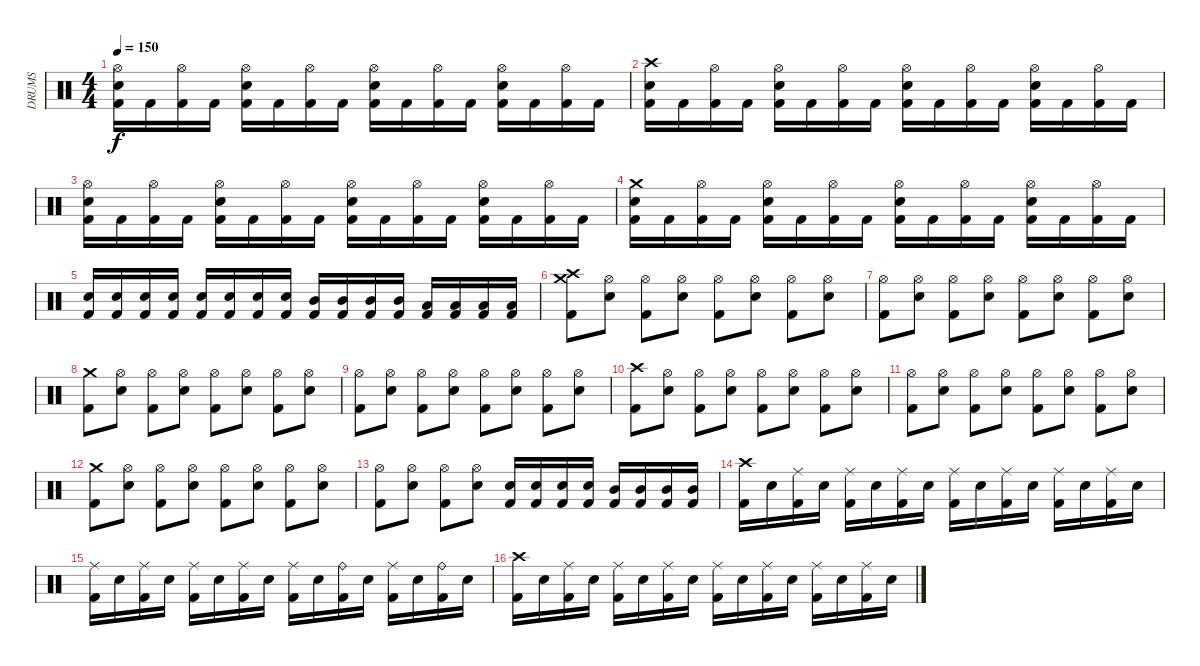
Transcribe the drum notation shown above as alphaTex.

\track ("DRUMS" "DRUMS") {instrument percussion}
\staff {score}
\articulation defaults
\ts (4 4)
\tempo 150
\clef neutral
\ks c
("Kick (hit) 2" "Snare (hit) 2" "Hi-Hat (open)").16{dy f} "Kick (hit) 2".16 ("Kick (hit) 2" "Hi-Hat (open)").16 "Kick (hit) 2".16 ("Kick (hit) 2" "Snare (hit) 2" "Hi-Hat (open)").16 "Kick (hit) 2".16 ("Kick (hit) 2" "Hi-Hat (open)").16 "Kick (hit) 2".16 ("Kick (hit) 2" "Snare (hit) 2" "Hi-Hat (open)").16 "Kick (hit) 2".16 ("Kick (hit) 2" "Hi-Hat (open)").16 "Kick (hit) 2".16 ("Kick (hit) 2" "Snare (hit) 2" "Hi-Hat (open)").16 "Kick (hit) 2".16 ("Kick (hit) 2" "Hi-Hat (open)").16 "Kick (hit) 2".16 |
("Kick (hit) 2" "Snare (hit) 2" "Crash high (hit)").16 "Kick (hit) 2".16 ("Kick (hit) 2" "Hi-Hat (open)").16 "Kick (hit) 2".16 ("Kick (hit) 2" "Snare (hit) 2" "Hi-Hat (open)").16 "Kick (hit) 2".16 ("Kick (hit) 2" "Hi-Hat (open)").16 "Kick (hit) 2".16 ("Kick (hit) 2" "Snare (hit) 2" "Hi-Hat (open)").16 "Kick (hit) 2".16 ("Kick (hit) 2" "Hi-Hat (open)").16 "Kick (hit) 2".16 ("Kick (hit) 2" "Snare (hit) 2" "Hi-Hat (open)").16 "Kick (hit) 2".16 ("Kick (hit) 2" "Hi-Hat (open)").16 "Kick (hit) 2".16 |
("Kick (hit) 2" "Snare (hit) 2" "Hi-Hat (open)").16 "Kick (hit) 2".16 ("Kick (hit) 2" "Hi-Hat (open)").16 "Kick (hit) 2".16 ("Kick (hit) 2" "Snare (hit) 2" "Hi-Hat (open)").16 "Kick (hit) 2".16 ("Kick (hit) 2" "Hi-Hat (open)").16 "Kick (hit) 2".16 ("Kick (hit) 2" "Snare (hit) 2" "Hi-Hat (open)").16 "Kick (hit) 2".16 ("Kick (hit) 2" "Hi-Hat (open)").16 "Kick (hit) 2".16 ("Kick (hit) 2" "Snare (hit) 2" "Hi-Hat (open)").16 "Kick (hit) 2".16 ("Kick (hit) 2" "Hi-Hat (open)").16 "Kick (hit) 2".16 |
("Kick (hit) 2" "Snare (hit) 2" "Crash medium (hit)").16 "Kick (hit) 2".16 ("Kick (hit) 2" "Hi-Hat (open)").16 "Kick (hit) 2".16 ("Kick (hit) 2" "Snare (hit) 2" "Hi-Hat (open)").16 "Kick (hit) 2".16 ("Kick (hit) 2" "Hi-Hat (open)").16 "Kick (hit) 2".16 ("Kick (hit) 2" "Snare (hit) 2" "Hi-Hat (open)").16 "Kick (hit) 2".16 ("Kick (hit) 2" "Hi-Hat (open)").16 "Kick (hit) 2".16 ("Kick (hit) 2" "Snare (hit) 2" "Hi-Hat (open)").16 "Kick (hit) 2".16 ("Kick (hit) 2" "Hi-Hat (open)").16 "Kick (hit) 2".16 |
("Kick (hit) 2" "Snare (hit) 2").16 ("Kick (hit) 2" "Snare (hit) 2").16 ("Kick (hit) 2" "Snare (hit) 2").16 ("Kick (hit) 2" "Snare (hit) 2").16 ("Kick (hit) 2" "Snare (hit) 2").16 ("Kick (hit) 2" "Snare (hit) 2").16 ("Kick (hit) 2" "Snare (hit) 2").16 ("Kick (hit) 2" "Snare (hit) 2").16 ("Kick (hit) 2" "Mid Tom (hit)").16 ("Kick (hit) 2" "Mid Tom (hit)").16 ("Kick (hit) 2" "Mid Tom (hit)").16 ("Kick (hit) 2" "Mid Tom (hit)").16 ("Kick (hit) 2" "Low Tom (hit)").16 ("Kick (hit) 2" "Low Tom (hit)").16 ("Kick (hit) 2" "Low Tom (hit)").16 ("Kick (hit) 2" "Low Tom (hit)").16 |
("Kick (hit) 2" "Crash high (hit)" "Crash medium (hit)").8 ("Snare (hit) 2" "Hi-Hat (open)").8 ("Kick (hit) 2" "Hi-Hat (open)").8 ("Snare (hit) 2" "Hi-Hat (open)").8 ("Kick (hit) 2" "Hi-Hat (open)").8 ("Snare (hit) 2" "Hi-Hat (open)").8 ("Kick (hit) 2" "Hi-Hat (open)").8 ("Snare (hit) 2" "Hi-Hat (open)").8 |
("Kick (hit) 2" "Hi-Hat (open)").8 ("Snare (hit) 2" "Hi-Hat (open)").8 ("Kick (hit) 2" "Hi-Hat (open)").8 ("Snare (hit) 2" "Hi-Hat (open)").8 ("Kick (hit) 2" "Hi-Hat (open)").8 ("Snare (hit) 2" "Hi-Hat (open)").8 ("Kick (hit) 2" "Hi-Hat (open)").8 ("Snare (hit) 2" "Hi-Hat (open)").8 |
("Kick (hit) 2" "Crash medium (hit)").8 ("Snare (hit) 2" "Hi-Hat (open)").8 ("Kick (hit) 2" "Hi-Hat (open)").8 ("Snare (hit) 2" "Hi-Hat (open)").8 ("Kick (hit) 2" "Hi-Hat (open)").8 ("Snare (hit) 2" "Hi-Hat (open)").8 ("Kick (hit) 2" "Hi-Hat (open)").8 ("Snare (hit) 2" "Hi-Hat (open)").8 |
("Kick (hit) 2" "Hi-Hat (open)").8 ("Snare (hit) 2" "Hi-Hat (open)").8 ("Kick (hit) 2" "Hi-Hat (open)").8 ("Snare (hit) 2" "Hi-Hat (open)").8 ("Kick (hit) 2" "Hi-Hat (open)").8 ("Snare (hit) 2" "Hi-Hat (open)").8 ("Kick (hit) 2" "Hi-Hat (open)").8 ("Snare (hit) 2" "Hi-Hat (open)").8 |
("Kick (hit) 2" "Crash high (hit)").8 ("Snare (hit) 2" "Hi-Hat (open)").8 ("Kick (hit) 2" "Hi-Hat (open)").8 ("Snare (hit) 2" "Hi-Hat (open)").8 ("Kick (hit) 2" "Hi-Hat (open)").8 ("Snare (hit) 2" "Hi-Hat (open)").8 ("Kick (hit) 2" "Hi-Hat (open)").8 ("Snare (hit) 2" "Hi-Hat (open)").8 |
("Kick (hit) 2" "Hi-Hat (open)").8 ("Snare (hit) 2" "Hi-Hat (open)").8 ("Kick (hit) 2" "Hi-Hat (open)").8 ("Snare (hit) 2" "Hi-Hat (open)").8 ("Kick (hit) 2" "Hi-Hat (open)").8 ("Snare (hit) 2" "Hi-Hat (open)").8 ("Kick (hit) 2" "Hi-Hat (open)").8 ("Snare (hit) 2" "Hi-Hat (open)").8 |
("Kick (hit) 2" "Crash medium (hit)").8 ("Snare (hit) 2" "Hi-Hat (open)").8 ("Kick (hit) 2" "Hi-Hat (open)").8 ("Snare (hit) 2" "Hi-Hat (open)").8 ("Kick (hit) 2" "Hi-Hat (open)").8 ("Snare (hit) 2" "Hi-Hat (open)").8 ("Kick (hit) 2" "Hi-Hat (open)").8 ("Snare (hit) 2" "Hi-Hat (open)").8 |
("Kick (hit) 2" "Hi-Hat (open)").8 ("Snare (hit) 2" "Hi-Hat (open)").8 ("Kick (hit) 2" "Hi-Hat (open)").8 ("Snare (hit) 2" "Hi-Hat (open)").8 ("Kick (hit) 2" "Snare (hit) 2").16 ("Kick (hit) 2" "Snare (hit) 2").16 ("Kick (hit) 2" "Snare (hit) 2").16 ("Kick (hit) 2" "Snare (hit) 2").16 ("Kick (hit) 2" "Mid Tom (hit)").16 ("Kick (hit) 2" "Mid Tom (hit)").16 ("Kick (hit) 2" "Mid Tom (hit)").16 ("Kick (hit) 2" "Mid Tom (hit)").16 |
("Kick (hit) 2" "Crash high (hit)").16 "Snare (hit) 2".16 ("Kick (hit) 2" "Ride (middle)").16 "Snare (hit) 2".16 ("Kick (hit) 2" "Ride (middle)").16 "Snare (hit) 2".16 ("Kick (hit) 2" "Ride (middle)").16 "Snare (hit) 2".16 ("Kick (hit) 2" "Ride (middle)").16 "Snare (hit) 2".16 ("Kick (hit) 2" "Ride (middle)").16 "Snare (hit) 2".16 ("Kick (hit) 2" "Ride (middle)").16 "Snare (hit) 2".16 ("Kick (hit) 2" "Ride (middle)").16 "Snare (hit) 2".16 |
("Kick (hit) 2" "Ride (middle)").16 "Snare (hit) 2".16 ("Kick (hit) 2" "Ride (middle)").16 "Snare (hit) 2".16 ("Kick (hit) 2" "Ride (middle)").16 "Snare (hit) 2".16 ("Kick (hit) 2" "Ride (middle)").16 "Snare (hit) 2".16 ("Kick (hit) 2" "Ride (middle)").16 "Snare (hit) 2".16 ("Kick (hit) 2" "Ride (bell)").16 "Snare (hit) 2".16 ("Kick (hit) 2" "Ride (middle)").16 "Snare (hit) 2".16 ("Kick (hit) 2" "Ride (bell)").16 "Snare (hit) 2".16 |
("Kick (hit) 2" "Crash high (hit)").16 "Snare (hit) 2".16 ("Kick (hit) 2" "Ride (middle)").16 "Snare (hit) 2".16 ("Kick (hit) 2" "Ride (middle)").16 "Snare (hit) 2".16 ("Kick (hit) 2" "Ride (middle)").16 "Snare (hit) 2".16 ("Kick (hit) 2" "Ride (middle)").16 "Snare (hit) 2".16 ("Kick (hit) 2" "Ride (middle)").16 "Snare (hit) 2".16 ("Kick (hit) 2" "Ride (middle)").16 "Snare (hit) 2".16 ("Kick (hit) 2" "Ride (middle)").16 "Snare (hit) 2".16
